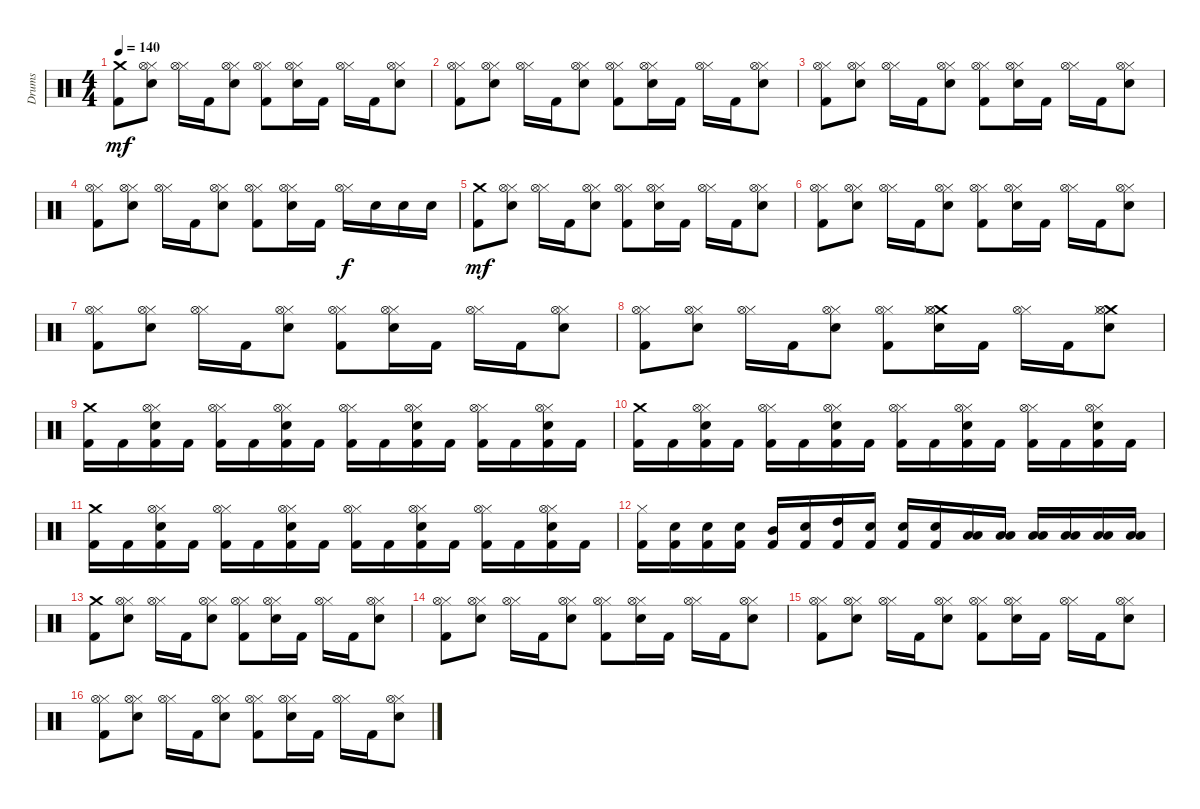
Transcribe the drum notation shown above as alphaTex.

\track ("Drums" "Drums") {instrument percussion}
\staff {score}
\articulation defaults
\ts (4 4)
\tempo 140
\clef neutral
\ks c
("Crash medium (hit)" "Kick (hit) 2").8{dy mf} ("Hi-Hat (closed)" "Hi-Hat (open)" "Electric Snare (hit)").8 ("Hi-Hat (closed)" "Hi-Hat (open)").16 "Kick (hit) 2".16 ("Hi-Hat (closed)" "Hi-Hat (open)" "Electric Snare (hit)").8 ("Hi-Hat (closed)" "Hi-Hat (open)" "Kick (hit) 2").8 ("Hi-Hat (closed)" "Hi-Hat (open)" "Electric Snare (hit)").16 "Kick (hit) 2".16 ("Hi-Hat (closed)" "Hi-Hat (open)").16 "Kick (hit) 2".16 ("Hi-Hat (closed)" "Hi-Hat (open)" "Electric Snare (hit)").8 |
("Hi-Hat (closed)" "Hi-Hat (open)" "Kick (hit) 2").8 ("Hi-Hat (closed)" "Hi-Hat (open)" "Electric Snare (hit)").8 ("Hi-Hat (closed)" "Hi-Hat (open)").16 "Kick (hit) 2".16 ("Hi-Hat (closed)" "Hi-Hat (open)" "Electric Snare (hit)").8 ("Hi-Hat (closed)" "Hi-Hat (open)" "Kick (hit) 2").8 ("Hi-Hat (closed)" "Hi-Hat (open)" "Electric Snare (hit)").16 "Kick (hit) 2".16 ("Hi-Hat (closed)" "Hi-Hat (open)").16 "Kick (hit) 2".16 ("Hi-Hat (closed)" "Hi-Hat (open)" "Electric Snare (hit)").8 |
("Hi-Hat (closed)" "Hi-Hat (open)" "Kick (hit) 2").8 ("Hi-Hat (closed)" "Hi-Hat (open)" "Electric Snare (hit)").8 ("Hi-Hat (closed)" "Hi-Hat (open)").16 "Kick (hit) 2".16 ("Hi-Hat (closed)" "Hi-Hat (open)" "Electric Snare (hit)").8 ("Hi-Hat (closed)" "Hi-Hat (open)" "Kick (hit) 2").8 ("Hi-Hat (closed)" "Hi-Hat (open)" "Electric Snare (hit)").16 "Kick (hit) 2".16 ("Hi-Hat (closed)" "Hi-Hat (open)").16 "Kick (hit) 2".16 ("Hi-Hat (closed)" "Hi-Hat (open)" "Electric Snare (hit)").8 |
("Hi-Hat (closed)" "Hi-Hat (open)" "Kick (hit) 2").8 ("Hi-Hat (closed)" "Hi-Hat (open)" "Electric Snare (hit)").8 ("Hi-Hat (closed)" "Hi-Hat (open)").16 "Kick (hit) 2".16 ("Hi-Hat (closed)" "Hi-Hat (open)" "Electric Snare (hit)").8 ("Hi-Hat (closed)" "Hi-Hat (open)" "Kick (hit) 2").8 ("Hi-Hat (closed)" "Hi-Hat (open)" "Electric Snare (hit)").16 "Kick (hit) 2".16 ("Hi-Hat (closed)" "Hi-Hat (open)").16{dy f} "Electric Snare (hit)".16 "Electric Snare (hit)".16 "Electric Snare (hit)".16 |
("Crash medium (hit)" "Kick (hit) 2").8{dy mf} ("Hi-Hat (closed)" "Hi-Hat (open)" "Electric Snare (hit)").8 ("Hi-Hat (closed)" "Hi-Hat (open)").16 "Kick (hit) 2".16 ("Hi-Hat (closed)" "Hi-Hat (open)" "Electric Snare (hit)").8 ("Hi-Hat (closed)" "Hi-Hat (open)" "Kick (hit) 2").8 ("Hi-Hat (closed)" "Hi-Hat (open)" "Electric Snare (hit)").16 "Kick (hit) 2".16 ("Hi-Hat (closed)" "Hi-Hat (open)").16 "Kick (hit) 2".16 ("Hi-Hat (closed)" "Hi-Hat (open)" "Electric Snare (hit)").8 |
("Hi-Hat (closed)" "Hi-Hat (open)" "Kick (hit) 2").8 ("Hi-Hat (closed)" "Hi-Hat (open)" "Electric Snare (hit)").8 ("Hi-Hat (closed)" "Hi-Hat (open)").16 "Kick (hit) 2".16 ("Hi-Hat (closed)" "Hi-Hat (open)" "Electric Snare (hit)").8 ("Hi-Hat (closed)" "Hi-Hat (open)" "Kick (hit) 2").8 ("Hi-Hat (closed)" "Hi-Hat (open)" "Electric Snare (hit)").16 "Kick (hit) 2".16 ("Hi-Hat (closed)" "Hi-Hat (open)").16 "Kick (hit) 2".16 ("Hi-Hat (closed)" "Hi-Hat (open)" "Electric Snare (hit)").8 |
("Hi-Hat (closed)" "Hi-Hat (open)" "Kick (hit) 2").8 ("Hi-Hat (closed)" "Hi-Hat (open)" "Electric Snare (hit)").8 ("Hi-Hat (closed)" "Hi-Hat (open)").16 "Kick (hit) 2".16 ("Hi-Hat (closed)" "Hi-Hat (open)" "Electric Snare (hit)").8 ("Hi-Hat (closed)" "Hi-Hat (open)" "Kick (hit) 2").8 ("Hi-Hat (closed)" "Hi-Hat (open)" "Electric Snare (hit)").16 "Kick (hit) 2".16 ("Hi-Hat (closed)" "Hi-Hat (open)").16 "Kick (hit) 2".16 ("Hi-Hat (closed)" "Hi-Hat (open)" "Electric Snare (hit)").8 |
("Hi-Hat (closed)" "Hi-Hat (open)" "Kick (hit) 2").8 ("Hi-Hat (closed)" "Hi-Hat (open)" "Electric Snare (hit)").8 ("Hi-Hat (closed)" "Hi-Hat (open)").16 "Kick (hit) 2".16 ("Hi-Hat (closed)" "Hi-Hat (open)" "Electric Snare (hit)").8 ("Hi-Hat (closed)" "Hi-Hat (open)" "Kick (hit) 2").8 ("Crash medium (hit)" "Hi-Hat (closed)" "Hi-Hat (open)" "Electric Snare (hit)").16 "Kick (hit) 2".16 ("Hi-Hat (closed)" "Hi-Hat (open)").16 "Kick (hit) 2".16 ("Crash medium (hit)" "Hi-Hat (closed)" "Hi-Hat (open)" "Electric Snare (hit)").8 |
("Crash medium (hit)" "Kick (hit) 2").16 "Kick (hit) 2".16 ("Hi-Hat (closed)" "Hi-Hat (open)" "Electric Snare (hit)" "Kick (hit) 2").16 "Kick (hit) 2".16 ("Hi-Hat (closed)" "Hi-Hat (open)" "Kick (hit) 2").16 "Kick (hit) 2".16 ("Hi-Hat (closed)" "Hi-Hat (open)" "Electric Snare (hit)" "Kick (hit) 2").16 "Kick (hit) 2".16 ("Hi-Hat (closed)" "Hi-Hat (open)" "Kick (hit) 2").16 "Kick (hit) 2".16 ("Hi-Hat (closed)" "Hi-Hat (open)" "Electric Snare (hit)" "Kick (hit) 2").16 "Kick (hit) 2".16 ("Hi-Hat (closed)" "Hi-Hat (open)" "Kick (hit) 2").16 "Kick (hit) 2".16 ("Hi-Hat (closed)" "Hi-Hat (open)" "Electric Snare (hit)" "Kick (hit) 2").16 "Kick (hit) 2".16 |
("Crash medium (hit)" "Kick (hit) 2").16 "Kick (hit) 2".16 ("Hi-Hat (closed)" "Hi-Hat (open)" "Electric Snare (hit)" "Kick (hit) 2").16 "Kick (hit) 2".16 ("Hi-Hat (closed)" "Hi-Hat (open)" "Kick (hit) 2").16 "Kick (hit) 2".16 ("Hi-Hat (closed)" "Hi-Hat (open)" "Electric Snare (hit)" "Kick (hit) 2").16 "Kick (hit) 2".16 ("Hi-Hat (closed)" "Hi-Hat (open)" "Kick (hit) 2").16 "Kick (hit) 2".16 ("Hi-Hat (closed)" "Hi-Hat (open)" "Electric Snare (hit)" "Kick (hit) 2").16 "Kick (hit) 2".16 ("Hi-Hat (closed)" "Hi-Hat (open)" "Kick (hit) 2").16 "Kick (hit) 2".16 ("Hi-Hat (closed)" "Hi-Hat (open)" "Electric Snare (hit)" "Kick (hit) 2").16 "Kick (hit) 2".16 |
("Crash medium (hit)" "Kick (hit) 2").16 "Kick (hit) 2".16 ("Hi-Hat (closed)" "Hi-Hat (open)" "Electric Snare (hit)" "Kick (hit) 2").16 "Kick (hit) 2".16 ("Hi-Hat (closed)" "Hi-Hat (open)" "Kick (hit) 2").16 "Kick (hit) 2".16 ("Hi-Hat (closed)" "Hi-Hat (open)" "Electric Snare (hit)" "Kick (hit) 2").16 "Kick (hit) 2".16 ("Hi-Hat (closed)" "Hi-Hat (open)" "Kick (hit) 2").16 "Kick (hit) 2".16 ("Hi-Hat (closed)" "Hi-Hat (open)" "Electric Snare (hit)" "Kick (hit) 2").16 "Kick (hit) 2".16 ("Hi-Hat (closed)" "Hi-Hat (open)" "Kick (hit) 2").16 "Kick (hit) 2".16 ("Hi-Hat (closed)" "Hi-Hat (open)" "Electric Snare (hit)" "Kick (hit) 2").16 "Kick (hit) 2".16 |
("Hi-Hat (closed)" "Kick (hit) 2").16 ("Electric Snare (hit)" "Kick (hit) 2").16 ("Electric Snare (hit)" "Kick (hit) 2").16 ("Electric Snare (hit)" "Kick (hit) 2").16 ("Mid Tom (hit)" "Kick (hit) 2").16 ("Electric Snare (hit)" "Kick (hit) 2").16 ("High Tom (hit)" "Kick (hit) 2").16 ("Electric Snare (hit)" "Kick (hit) 2").16 ("Electric Snare (hit)" "Kick (hit) 2").16 ("Electric Snare (hit)" "Kick (hit) 2").16 ("Low Floor Tom (hit)" "Low Tom (hit)").16 ("Low Floor Tom (hit)" "Low Tom (hit)").16 ("Low Floor Tom (hit)" "Low Tom (hit)").16 ("Low Floor Tom (hit)" "Low Tom (hit)").16 ("Low Floor Tom (hit)" "Low Tom (hit)").16 ("Low Floor Tom (hit)" "Low Tom (hit)").16 |
("Crash medium (hit)" "Kick (hit) 2").8 ("Hi-Hat (closed)" "Hi-Hat (open)" "Electric Snare (hit)").8 ("Hi-Hat (closed)" "Hi-Hat (open)").16 "Kick (hit) 2".16 ("Hi-Hat (closed)" "Hi-Hat (open)" "Electric Snare (hit)").8 ("Hi-Hat (closed)" "Hi-Hat (open)" "Kick (hit) 2").8 ("Hi-Hat (closed)" "Hi-Hat (open)" "Electric Snare (hit)").16 "Kick (hit) 2".16 ("Hi-Hat (closed)" "Hi-Hat (open)").16 "Kick (hit) 2".16 ("Hi-Hat (closed)" "Hi-Hat (open)" "Electric Snare (hit)").8 |
("Hi-Hat (closed)" "Hi-Hat (open)" "Kick (hit) 2").8 ("Hi-Hat (closed)" "Hi-Hat (open)" "Electric Snare (hit)").8 ("Hi-Hat (closed)" "Hi-Hat (open)").16 "Kick (hit) 2".16 ("Hi-Hat (closed)" "Hi-Hat (open)" "Electric Snare (hit)").8 ("Hi-Hat (closed)" "Hi-Hat (open)" "Kick (hit) 2").8 ("Hi-Hat (closed)" "Hi-Hat (open)" "Electric Snare (hit)").16 "Kick (hit) 2".16 ("Hi-Hat (closed)" "Hi-Hat (open)").16 "Kick (hit) 2".16 ("Hi-Hat (closed)" "Hi-Hat (open)" "Electric Snare (hit)").8 |
("Hi-Hat (closed)" "Hi-Hat (open)" "Kick (hit) 2").8 ("Hi-Hat (closed)" "Hi-Hat (open)" "Electric Snare (hit)").8 ("Hi-Hat (closed)" "Hi-Hat (open)").16 "Kick (hit) 2".16 ("Hi-Hat (closed)" "Hi-Hat (open)" "Electric Snare (hit)").8 ("Hi-Hat (closed)" "Hi-Hat (open)" "Kick (hit) 2").8 ("Hi-Hat (closed)" "Hi-Hat (open)" "Electric Snare (hit)").16 "Kick (hit) 2".16 ("Hi-Hat (closed)" "Hi-Hat (open)").16 "Kick (hit) 2".16 ("Hi-Hat (closed)" "Hi-Hat (open)" "Electric Snare (hit)").8 |
("Hi-Hat (closed)" "Hi-Hat (open)" "Kick (hit) 2").8 ("Hi-Hat (closed)" "Hi-Hat (open)" "Electric Snare (hit)").8 ("Hi-Hat (closed)" "Hi-Hat (open)").16 "Kick (hit) 2".16 ("Hi-Hat (closed)" "Hi-Hat (open)" "Electric Snare (hit)").8 ("Hi-Hat (closed)" "Hi-Hat (open)" "Kick (hit) 2").8 ("Hi-Hat (closed)" "Hi-Hat (open)" "Electric Snare (hit)").16 "Kick (hit) 2".16 ("Hi-Hat (closed)" "Hi-Hat (open)").16 "Kick (hit) 2".16 ("Hi-Hat (closed)" "Hi-Hat (open)" "Electric Snare (hit)").8
